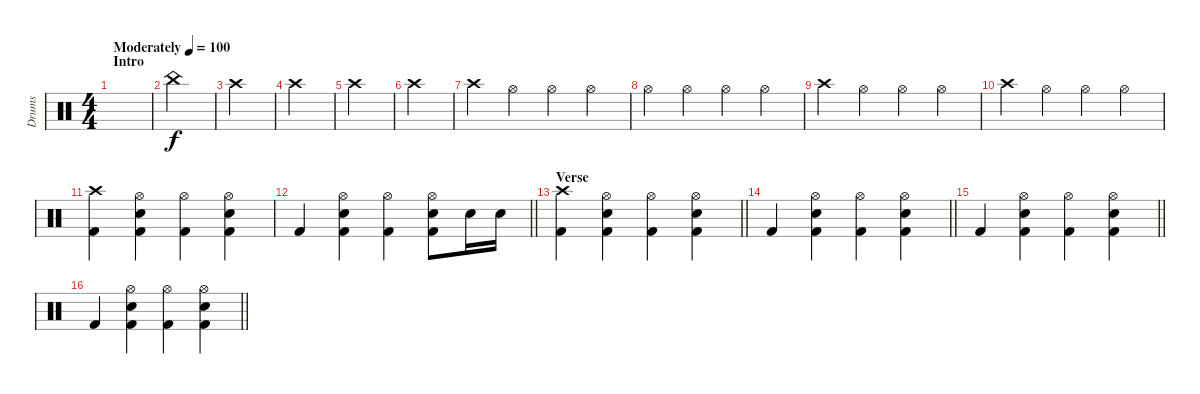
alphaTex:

\track ("Drums" "Drums") {instrument percussion}
\staff {score}
\articulation defaults
\ts (4 4)
\section ("" "Intro")
\tempo (100 "Moderately")
\clef neutral
\ks c
|
"China (hit)".4 |
"Crash high (hit)".4 |
"Crash high (hit)".4 |
"Crash high (hit)".4 |
"Crash high (hit)".4 |
"Crash high (hit)".4 "Hi-Hat (open)".4 "Hi-Hat (open)".4 "Hi-Hat (open)".4 |
"Hi-Hat (open)".4 "Hi-Hat (open)".4 "Hi-Hat (open)".4 "Hi-Hat (open)".4 |
"Crash high (hit)".4 "Hi-Hat (open)".4 "Hi-Hat (open)".4 "Hi-Hat (open)".4 |
"Crash high (hit)".4 "Hi-Hat (open)".4 "Hi-Hat (open)".4 "Hi-Hat (open)".4 |
("Crash high (hit)" "Kick (hit) 2").4 ("Hi-Hat (open)" "Snare (hit) 2" "Kick (hit) 2").4 ("Hi-Hat (open)" "Kick (hit) 2").4 ("Hi-Hat (open)" "Snare (hit) 2" "Kick (hit) 2").4 |
\barLineRight lightlight "Kick (hit) 2".4
("Hi-Hat (open)" "Snare (hit) 2" "Kick (hit) 2").4 ("Hi-Hat (open)" "Kick (hit) 2").4 ("Hi-Hat (open)" "Snare (hit) 2" "Kick (hit) 2").8 "Snare (hit) 2".16 "Snare (hit) 2".16 |
\section ("" "Verse")
\barLineRight lightlight
("Crash high (hit)" "Kick (hit) 2").4 ("Hi-Hat (open)" "Snare (hit) 2" "Kick (hit) 2").4 ("Hi-Hat (open)" "Kick (hit) 2").4 ("Hi-Hat (open)" "Snare (hit) 2" "Kick (hit) 2").4 |
\barLineRight lightlight "Kick (hit) 2".4
("Hi-Hat (open)" "Snare (hit) 2" "Kick (hit) 2").4 ("Hi-Hat (open)" "Kick (hit) 2").4 ("Hi-Hat (open)" "Snare (hit) 2" "Kick (hit) 2").4 |
\barLineRight lightlight "Kick (hit) 2".4
("Hi-Hat (open)" "Snare (hit) 2" "Kick (hit) 2").4 ("Hi-Hat (open)" "Kick (hit) 2").4 ("Hi-Hat (open)" "Snare (hit) 2" "Kick (hit) 2").4 |
\barLineRight lightlight "Kick (hit) 2".4
("Hi-Hat (open)" "Snare (hit) 2" "Kick (hit) 2").4 ("Hi-Hat (open)" "Kick (hit) 2").4 ("Hi-Hat (open)" "Snare (hit) 2" "Kick (hit) 2").4
